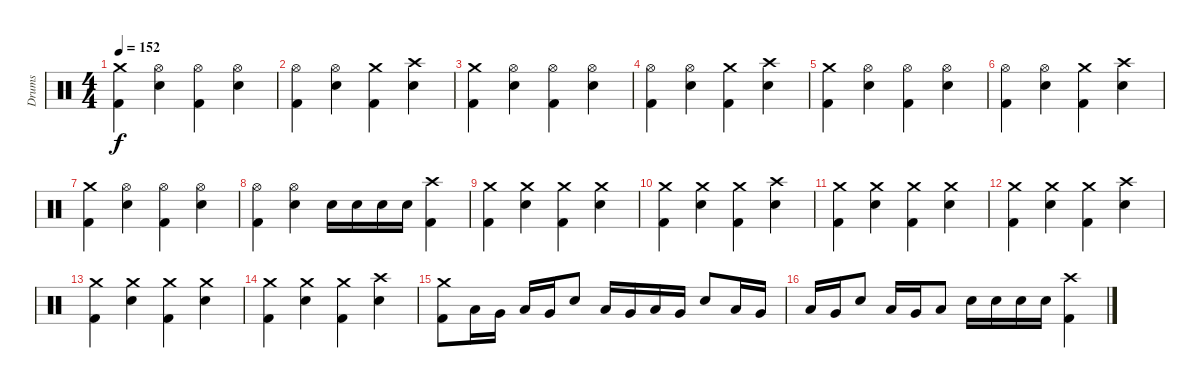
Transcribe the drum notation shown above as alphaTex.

\track ("Drums" "Drums") {instrument percussion}
\staff
\articulation defaults
\ts (4 4)
\tempo 152
\clef neutral
\ks c
("Crash medium (hit)" "Kick (hit) 2").4{dy f} ("Hi-Hat (open)" "Snare (hit) 2").4 ("Hi-Hat (open)" "Kick (hit) 2").4 ("Hi-Hat (open)" "Snare (hit) 2").4 |
("Hi-Hat (open)" "Kick (hit) 2").4 ("Hi-Hat (open)" "Snare (hit) 2").4 ("Crash medium (hit)" "Kick (hit) 2").4 ("Crash high (hit)" "Snare (hit) 2").4 |
("Crash medium (hit)" "Kick (hit) 2").4 ("Hi-Hat (open)" "Snare (hit) 2").4 ("Hi-Hat (open)" "Kick (hit) 2").4 ("Hi-Hat (open)" "Snare (hit) 2").4 |
("Hi-Hat (open)" "Kick (hit) 2").4 ("Hi-Hat (open)" "Snare (hit) 2").4 ("Crash medium (hit)" "Kick (hit) 2").4 ("Crash high (hit)" "Snare (hit) 2").4 |
("Crash medium (hit)" "Kick (hit) 2").4 ("Hi-Hat (open)" "Snare (hit) 2").4 ("Hi-Hat (open)" "Kick (hit) 2").4 ("Hi-Hat (open)" "Snare (hit) 2").4 |
("Hi-Hat (open)" "Kick (hit) 2").4 ("Hi-Hat (open)" "Snare (hit) 2").4 ("Crash medium (hit)" "Kick (hit) 2").4 ("Crash high (hit)" "Snare (hit) 2").4 |
("Crash medium (hit)" "Kick (hit) 2").4 ("Hi-Hat (open)" "Snare (hit) 2").4 ("Hi-Hat (open)" "Kick (hit) 2").4 ("Hi-Hat (open)" "Snare (hit) 2").4 |
("Hi-Hat (open)" "Kick (hit) 2").4 ("Hi-Hat (open)" "Snare (hit) 2").4 "Snare (hit) 2".16 "Snare (hit) 2".16 "Snare (hit) 2".16 "Snare (hit) 2".16 ("Crash high (hit)" "Kick (hit) 2").4 |
("Crash medium (hit)" "Kick (hit) 2").4 ("Crash medium (hit)" "Snare (hit) 2").4 ("Crash medium (hit)" "Kick (hit) 2").4 ("Crash medium (hit)" "Snare (hit) 2").4 |
("Crash medium (hit)" "Kick (hit) 2").4 ("Crash medium (hit)" "Snare (hit) 2").4 ("Crash medium (hit)" "Kick (hit) 2").4 ("Crash high (hit)" "Snare (hit) 2").4 |
("Crash medium (hit)" "Kick (hit) 2").4 ("Crash medium (hit)" "Snare (hit) 2").4 ("Crash medium (hit)" "Kick (hit) 2").4 ("Crash medium (hit)" "Snare (hit) 2").4 |
("Crash medium (hit)" "Kick (hit) 2").4 ("Crash medium (hit)" "Snare (hit) 2").4 ("Crash medium (hit)" "Kick (hit) 2").4 ("Crash high (hit)" "Snare (hit) 2").4 |
("Crash medium (hit)" "Kick (hit) 2").4 ("Crash medium (hit)" "Snare (hit) 2").4 ("Crash medium (hit)" "Kick (hit) 2").4 ("Crash medium (hit)" "Snare (hit) 2").4 |
("Crash medium (hit)" "Kick (hit) 2").4 ("Crash medium (hit)" "Snare (hit) 2").4 ("Crash medium (hit)" "Kick (hit) 2").4 ("Crash high (hit)" "Snare (hit) 2").4 |
("Crash medium (hit)" "Kick (hit) 2").8 "Low Floor Tom (hit)".16 "Very Low Tom (hit)".16 "Low Floor Tom (hit)".16 "Very Low Tom (hit)".16 "Snare (hit) 2".8 "Low Floor Tom (hit)".16 "Very Low Tom (hit)".16 "Low Floor Tom (hit)".16 "Very Low Tom (hit)".16 "Snare (hit) 2".8 "Low Floor Tom (hit)".16 "Very Low Tom (hit)".16 |
"Low Floor Tom (hit)".16 "Very Low Tom (hit)".16 "Snare (hit) 2".8 "Low Floor Tom (hit)".16 "Very Low Tom (hit)".16 "Low Floor Tom (hit)".8 "Snare (hit) 2".16 "Snare (hit) 2".16 "Snare (hit) 2".16 "Snare (hit) 2".16 ("Crash high (hit)" "Kick (hit) 2").4
